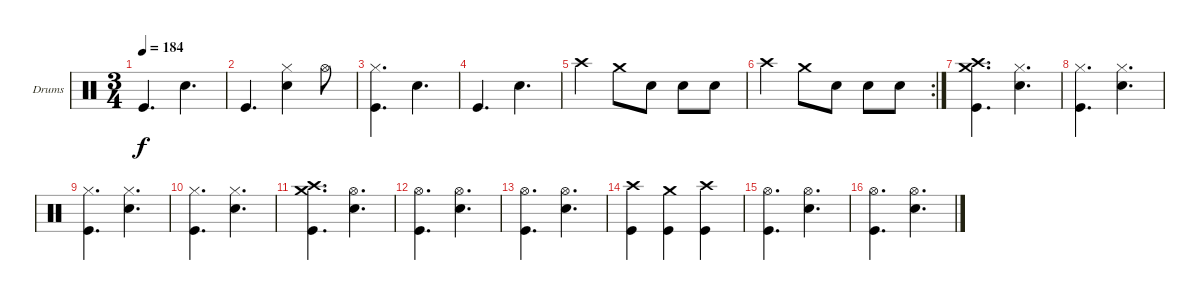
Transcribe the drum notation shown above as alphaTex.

\bracketExtendMode groupsimilarinstruments
\firstSystemTrackNameOrientation horizontal
\otherSystemsTrackNameOrientation horizontal
\track ("Drumkit" "Drums") {instrument percussion}
\staff {score}
\articulation defaults
\ts (3 4)
\tempo 184
\clef neutral
\ks c "Kick (hit)".4{d dy f} "Snare (hit) 2".4{d}
|
"Kick (hit)".4{d} ("Hi-Hat (closed)" "Snare (hit) 2").4 "Hi-Hat (open)".8 |
("Hi-Hat (closed)" "Kick (hit)").4{d} "Snare (hit) 2".4{d} |
"Kick (hit)".4{d} "Snare (hit) 2".4{d} |
"Crash high (hit)".4 "Crash medium (hit)".8 "Snare (hit) 2".8 "Snare (hit) 2".8 "Snare (hit) 2".8 |
\rc 2 "Crash high (hit)".4 "Crash medium (hit)".8 "Snare (hit) 2".8 "Snare (hit) 2".8 "Snare (hit) 2".8
|
("Crash high (hit)" "Crash medium (hit)" "Kick (hit)").4{d} ("Snare (hit) 2" "Hi-Hat (closed)").4{d} |
("Hi-Hat (closed)" "Kick (hit)").4{d} ("Snare (hit) 2" "Hi-Hat (closed)").4{d} |
("Hi-Hat (closed)" "Kick (hit)").4{d} ("Snare (hit) 2" "Hi-Hat (closed)").4{d} |
("Hi-Hat (closed)" "Kick (hit)").4{d} ("Snare (hit) 2" "Hi-Hat (closed)").4{d} |
("Crash high (hit)" "Crash medium (hit)" "Kick (hit)").4{d} ("Hi-Hat (open)" "Snare (hit) 2").4{d} |
("Hi-Hat (open)" "Kick (hit)").4{d} ("Hi-Hat (open)" "Snare (hit) 2").4{d} |
("Hi-Hat (open)" "Kick (hit)").4{d} ("Hi-Hat (open)" "Snare (hit) 2").4{d} |
("Crash high (hit)" "Kick (hit)").4 ("Crash medium (hit)" "Kick (hit)").4 ("Crash high (hit)" "Kick (hit)").4 |
("Hi-Hat (open)" "Kick (hit)").4{d} ("Hi-Hat (open)" "Snare (hit) 2").4{d} |
("Hi-Hat (open)" "Kick (hit)").4{d} ("Hi-Hat (open)" "Snare (hit) 2").4{d}
